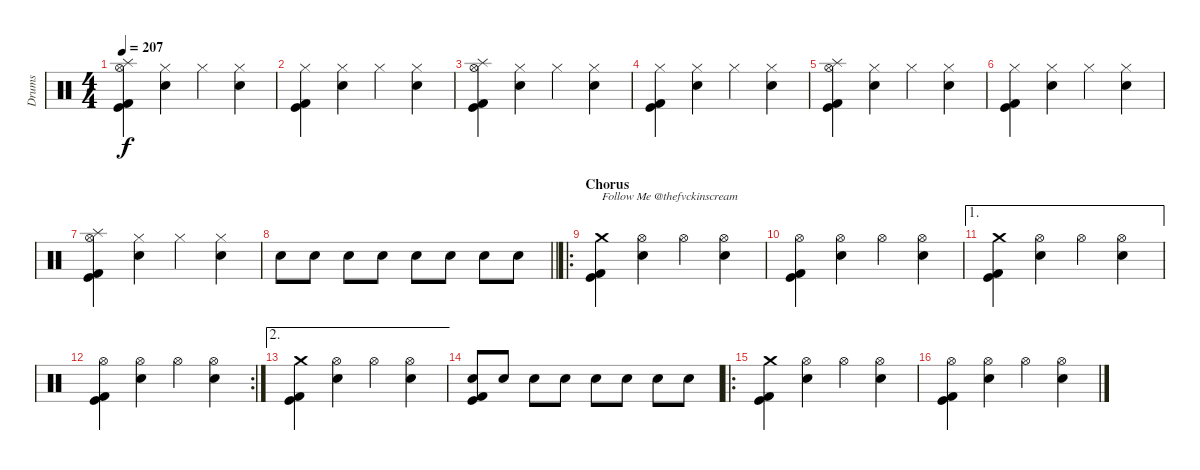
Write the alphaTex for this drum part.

\track ("Drums" "Drums") {instrument percussion}
\staff {score}
\articulation defaults
\ts (4 4)
\tempo 207
\clef neutral
\ks c
("Splash (hit)" "Hi-Hat (open)" "Kick (hit)" "Kick (hit) 2").4{dy f} ("Hi-Hat (closed)" "Electric Snare (hit)").4 "Hi-Hat (closed)".4 ("Hi-Hat (closed)" "Electric Snare (hit)").4 |
("Hi-Hat (closed)" "Kick (hit)" "Kick (hit) 2").4 ("Hi-Hat (closed)" "Electric Snare (hit)").4 "Hi-Hat (closed)".4 ("Hi-Hat (closed)" "Electric Snare (hit)").4 |
("Splash (hit)" "Hi-Hat (open)" "Kick (hit)" "Kick (hit) 2").4 ("Hi-Hat (closed)" "Electric Snare (hit)").4 "Hi-Hat (closed)".4 ("Hi-Hat (closed)" "Electric Snare (hit)").4 |
("Hi-Hat (closed)" "Kick (hit)" "Kick (hit) 2").4 ("Hi-Hat (closed)" "Electric Snare (hit)").4 "Hi-Hat (closed)".4 ("Hi-Hat (closed)" "Electric Snare (hit)").4 |
("Splash (hit)" "Hi-Hat (open)" "Kick (hit)" "Kick (hit) 2").4 ("Hi-Hat (closed)" "Electric Snare (hit)").4 "Hi-Hat (closed)".4 ("Hi-Hat (closed)" "Electric Snare (hit)").4 |
("Hi-Hat (closed)" "Kick (hit)" "Kick (hit) 2").4 ("Hi-Hat (closed)" "Electric Snare (hit)").4 "Hi-Hat (closed)".4 ("Hi-Hat (closed)" "Electric Snare (hit)").4 |
("Splash (hit)" "Hi-Hat (open)" "Kick (hit)" "Kick (hit) 2").4 ("Hi-Hat (closed)" "Electric Snare (hit)").4 "Hi-Hat (closed)".4 ("Hi-Hat (closed)" "Electric Snare (hit)").4 |
\barLineRight lightlight "Electric Snare (hit)".8 "Electric Snare (hit)".8 "Electric Snare (hit)".8 "Electric Snare (hit)".8 "Electric Snare (hit)".8 "Electric Snare (hit)".8 "Electric Snare (hit)".8 "Electric Snare (hit)".8
|
\ro
\section ("" "Chorus")
("Crash medium (hit)" "Kick (hit)" "Kick (hit) 2").4{txt "Follow Me @thefvckinscream"} ("Hi-Hat (open)" "Electric Snare (hit)").4 "Hi-Hat (open)".4 ("Hi-Hat (open)" "Electric Snare (hit)").4 |
("Hi-Hat (open)" "Kick (hit)" "Kick (hit) 2").4 ("Hi-Hat (open)" "Electric Snare (hit)").4 "Hi-Hat (open)".4 ("Hi-Hat (open)" "Electric Snare (hit)").4 |
\ae 1
("Crash medium (hit)" "Kick (hit)" "Kick (hit) 2").4 ("Hi-Hat (open)" "Electric Snare (hit)").4 "Hi-Hat (open)".4 ("Hi-Hat (open)" "Electric Snare (hit)").4 |
\rc 2
("Hi-Hat (open)" "Kick (hit)" "Kick (hit) 2").4 ("Hi-Hat (open)" "Electric Snare (hit)").4 "Hi-Hat (open)".4 ("Hi-Hat (open)" "Electric Snare (hit)").4 |
\ae 2
("Crash medium (hit)" "Kick (hit)" "Kick (hit) 2").4 ("Hi-Hat (open)" "Electric Snare (hit)").4 "Hi-Hat (open)".4 ("Hi-Hat (open)" "Electric Snare (hit)").4 |
("Electric Snare (hit)" "Kick (hit)" "Kick (hit) 2").8 "Electric Snare (hit)".8 "Electric Snare (hit)".8 "Electric Snare (hit)".8 "Electric Snare (hit)".8 "Electric Snare (hit)".8 "Electric Snare (hit)".8 "Electric Snare (hit)".8 |
\ro
("Crash medium (hit)" "Kick (hit)" "Kick (hit) 2").4 ("Hi-Hat (open)" "Electric Snare (hit)").4 "Hi-Hat (open)".4 ("Hi-Hat (open)" "Electric Snare (hit)").4 |
("Hi-Hat (open)" "Kick (hit)" "Kick (hit) 2").4 ("Hi-Hat (open)" "Electric Snare (hit)").4 "Hi-Hat (open)".4 ("Hi-Hat (open)" "Electric Snare (hit)").4
